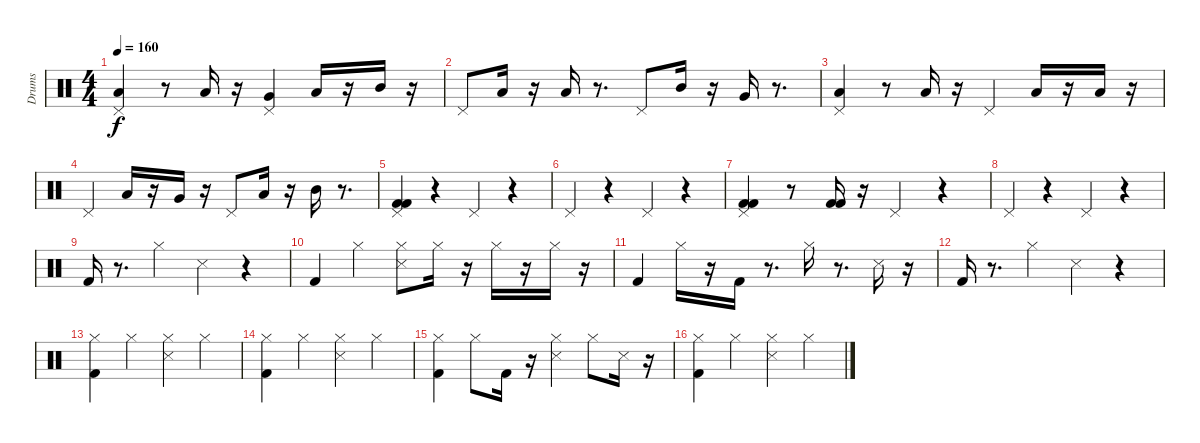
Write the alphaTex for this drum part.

\track ("Drums" "Drums") {instrument percussion}
\staff {score}
\articulation defaults
\ts (4 4)
\tempo 160
\clef neutral
\ks c
("Pedal Hi-Hat (hit)" "Low Tom (hit)").4{dy f} r.8 "Low Floor Tom (hit)".16 r.16 ("Pedal Hi-Hat (hit)" "Very Low Tom (hit)").4 "Low Floor Tom (hit)".16 r.16 "Mid Tom (hit)".16 r.16 |
"Pedal Hi-Hat (hit)".8 "Low Floor Tom (hit)".16 r.16 "Low Tom (hit)".16 r.8{d} "Pedal Hi-Hat (hit)".8 "Mid Tom (hit)".16 r.16 "Very Low Tom (hit)".16 r.8{d} |
("Pedal Hi-Hat (hit)" "Low Tom (hit)").4 r.8 "Low Tom (hit)".16 r.16 "Pedal Hi-Hat (hit)".4 "Low Floor Tom (hit)".16 r.16 "Low Tom (hit)".16 r.16 |
"Pedal Hi-Hat (hit)".4 "Low Floor Tom (hit)".16 r.16 "Very Low Tom (hit)".16 r.16 "Pedal Hi-Hat (hit)".8 "Low Floor Tom (hit)".16 r.16 "Mid Tom (hit)".16 r.8{d} |
("Kick (hit) 2" "Pedal Hi-Hat (hit)" "Kick (hit) 2").4 r.4 "Pedal Hi-Hat (hit)".4 r.4 |
"Pedal Hi-Hat (hit)".4 r.4 "Pedal Hi-Hat (hit)".4 r.4 |
("Kick (hit) 2" "Pedal Hi-Hat (hit)" "Kick (hit) 2").4 r.8 ("Kick (hit) 2" "Kick (hit) 2").16 r.16 "Pedal Hi-Hat (hit)".4 r.4 |
"Pedal Hi-Hat (hit)".4 r.4 "Pedal Hi-Hat (hit)".4 r.4 |
"Kick (hit) 2".16 r.8{d} "Hi-Hat (closed)".4 "Snare (side stick) 3".4 r.4 |
"Kick (hit) 2".4 "Hi-Hat (closed)".4 ("Hi-Hat (closed)" "Snare (side stick) 3").8 "Hi-Hat (closed)".16 r.16 "Hi-Hat (closed)".16 r.16 "Hi-Hat (closed)".16 r.16 |
"Kick (hit) 2".4 "Hi-Hat (closed)".16 r.16 "Kick (hit) 2".16 r.8{d} "Hi-Hat (closed)".16 r.8{d} "Snare (side stick) 3".16 r.16 |
"Kick (hit) 2".16 r.8{d} "Hi-Hat (closed)".4 "Snare (side stick) 3".4 r.4 |
("Hi-Hat (closed)" "Kick (hit) 2").4 "Hi-Hat (closed)".4 ("Hi-Hat (closed)" "Snare (side stick) 3").4 "Hi-Hat (closed)".4 |
("Hi-Hat (closed)" "Kick (hit) 2").4 "Hi-Hat (closed)".4 ("Hi-Hat (closed)" "Snare (side stick) 3").4 "Hi-Hat (closed)".4 |
("Kick (hit) 2" "Hi-Hat (closed)").4 "Hi-Hat (closed)".8 "Kick (hit) 2".16 r.16 ("Snare (side stick) 3" "Hi-Hat (closed)").4 "Hi-Hat (closed)".8 "Snare (side stick) 3".16 r.16 |
("Hi-Hat (closed)" "Kick (hit) 2").4 "Hi-Hat (closed)".4 ("Hi-Hat (closed)" "Snare (side stick) 3").4 "Hi-Hat (closed)".4
